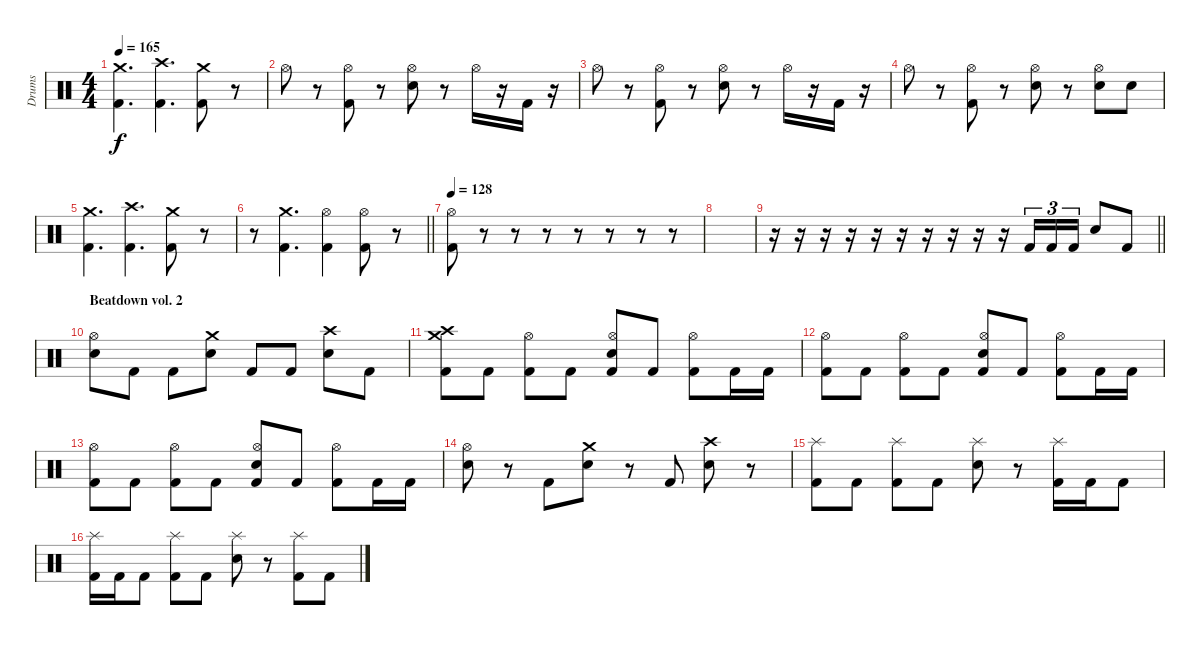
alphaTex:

\track ("Drums" "Drums") {instrument percussion}
\staff {score}
\articulation defaults
\ts (4 4)
\tempo 165
\clef neutral
\ks c
("Crash medium (hit)" "Kick (hit) 2").4{d dy f} ("Crash high (hit)" "Kick (hit) 2").4{d} ("Crash medium (hit)" "Kick (hit) 2").8 r.8 |
"Hi-Hat (open)".8 r.8 ("Hi-Hat (open)" "Kick (hit) 2").8 r.8 ("Hi-Hat (open)" "Electric Snare (hit)").8 r.8 "Hi-Hat (open)".16 r.16 "Kick (hit) 2".16 r.16 |
"Hi-Hat (open)".8 r.8 ("Hi-Hat (open)" "Kick (hit) 2").8 r.8 ("Hi-Hat (open)" "Electric Snare (hit)").8 r.8 "Hi-Hat (open)".16 r.16 "Kick (hit) 2".16 r.16 |
"Hi-Hat (open)".8 r.8 ("Hi-Hat (open)" "Kick (hit) 2").8 r.8 ("Hi-Hat (open)" "Electric Snare (hit)").8 r.8 ("Hi-Hat (open)" "Electric Snare (hit)").8 "Electric Snare (hit)".8 |
("Crash medium (hit)" "Kick (hit) 2").4{d} ("Crash high (hit)" "Kick (hit) 2").4{d} ("Crash medium (hit)" "Kick (hit) 2").8 r.8 |
\barLineRight lightlight
r.8 ("Crash medium (hit)" "Kick (hit) 2").4{d} ("Hi-Hat (open)" "Kick (hit) 2").4 ("Hi-Hat (open)" "Kick (hit) 2").8 r.8 |
\tempo 128
("Hi-Hat (open)" "Kick (hit) 2").8 r.8 r.8 r.8 r.8 r.8 r.8 r.8 |
|
\barLineRight lightlight
r.16 r.16 r.16 r.16 r.16 r.16 r.16 r.16 r.16 r.16 "Kick (hit) 2".16{tu (3 2)} "Kick (hit) 2".16{tu (3 2)} "Kick (hit) 2".16{tu (3 2)} "Electric Snare (hit)".8 "Kick (hit) 2".8 |
\section ("" "Beatdown vol. 2")
("Hi-Hat (open)" "Electric Snare (hit)").8 "Kick (hit) 2".8 "Kick (hit) 2".8 ("Crash medium (hit)" "Electric Snare (hit)").8 "Kick (hit) 2".8 "Kick (hit) 2".8 ("Crash high (hit)" "Electric Snare (hit)").8 "Kick (hit) 2".8 |
("Crash medium (hit)" "Crash high (hit)" "Kick (hit) 2").8 "Kick (hit) 2".8 ("Hi-Hat (open)" "Kick (hit) 2").8 "Kick (hit) 2".8 ("Hi-Hat (open)" "Electric Snare (hit)" "Kick (hit) 2").8 "Kick (hit) 2".8 ("Hi-Hat (open)" "Kick (hit) 2").8 "Kick (hit) 2".16 "Kick (hit) 2".16 |
("Hi-Hat (open)" "Kick (hit) 2").8 "Kick (hit) 2".8 ("Hi-Hat (open)" "Kick (hit) 2").8 "Kick (hit) 2".8 ("Hi-Hat (open)" "Electric Snare (hit)" "Kick (hit) 2").8 "Kick (hit) 2".8 ("Hi-Hat (open)" "Kick (hit) 2").8 "Kick (hit) 2".16 "Kick (hit) 2".16 |
("Hi-Hat (open)" "Kick (hit) 2").8 "Kick (hit) 2".8 ("Hi-Hat (open)" "Kick (hit) 2").8 "Kick (hit) 2".8 ("Hi-Hat (open)" "Electric Snare (hit)" "Kick (hit) 2").8 "Kick (hit) 2".8 ("Hi-Hat (open)" "Kick (hit) 2").8 "Kick (hit) 2".16 "Kick (hit) 2".16 |
("Hi-Hat (open)" "Electric Snare (hit)").8 r.8 "Kick (hit) 2".8 ("Crash medium (hit)" "Electric Snare (hit)").8 r.8 "Kick (hit) 2".8 ("Crash high (hit)" "Electric Snare (hit)").8 r.8 |
("Splash (hit)" "Kick (hit) 2").8 "Kick (hit) 2".8 ("Splash (hit)" "Kick (hit) 2").8 "Kick (hit) 2".8 ("Splash (hit)" "Electric Snare (hit)").8 r.8 ("Splash (hit)" "Kick (hit) 2").16 "Kick (hit) 2".16 "Kick (hit) 2".8 |
("Splash (hit)" "Kick (hit) 2").16 "Kick (hit) 2".16 "Kick (hit) 2".8 ("Splash (hit)" "Kick (hit) 2").8 "Kick (hit) 2".8 ("Splash (hit)" "Electric Snare (hit)").8 r.8 ("Splash (hit)" "Kick (hit) 2").8 "Kick (hit) 2".8
